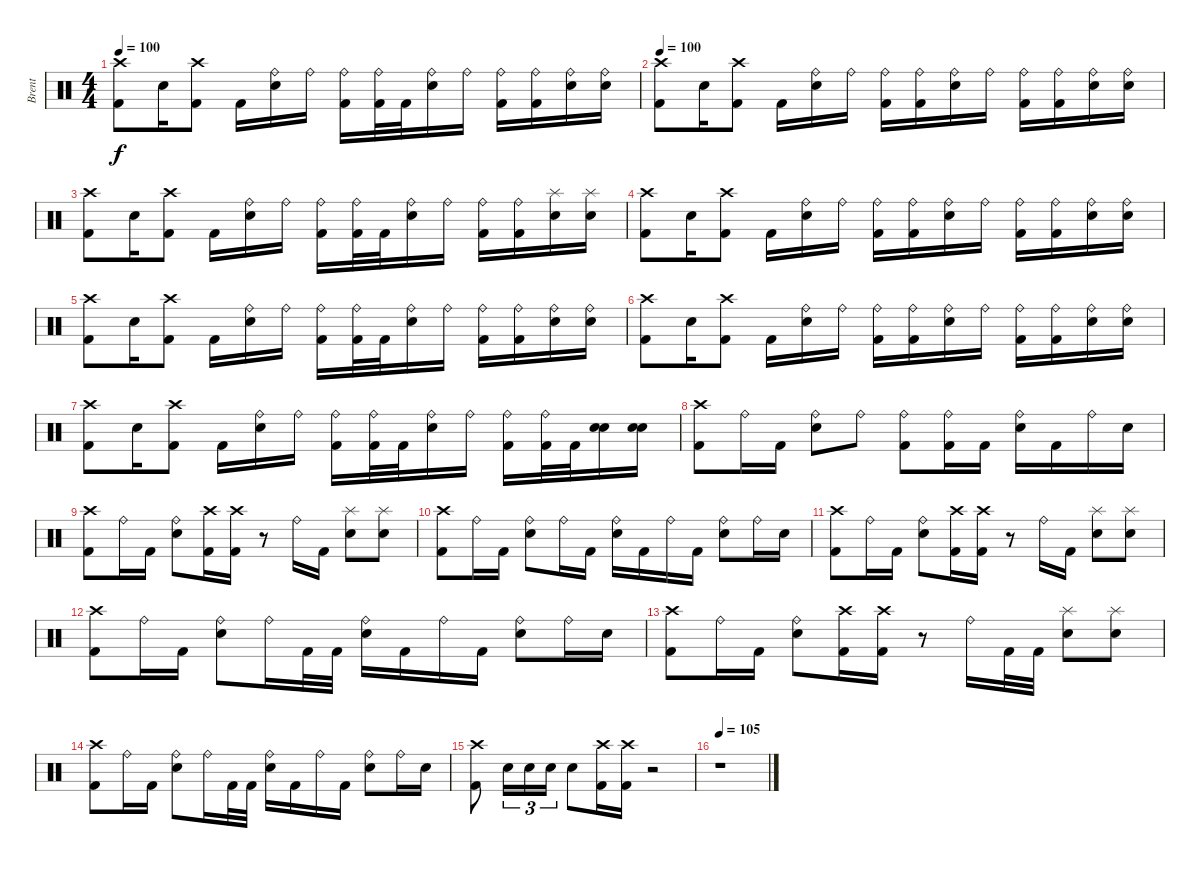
\track ("Brent" "Brent") {instrument percussion}
\staff {score}
\articulation defaults
\ts (4 4)
\tempo 100
\clef neutral
\ks c
("Crash high (hit)" "Kick (hit) 2").8{dy f} "Snare (hit) 2".16 ("Crash high (hit)" "Kick (hit) 2").8 "Kick (hit) 2".16 ("Ride (bell)" "Snare (hit) 2").16 "Ride (bell)".16 ("Ride (bell)" "Kick (hit) 2").16 ("Ride (bell)" "Kick (hit) 2").32 "Kick (hit) 2".32 ("Ride (bell)" "Snare (hit) 2").16 "Ride (bell)".16 ("Ride (bell)" "Kick (hit) 2").16 ("Ride (bell)" "Kick (hit) 2").16 ("Ride (bell)" "Snare (hit) 2").16 ("Ride (bell)" "Snare (hit) 2").16 |
\tempo 100
("Crash high (hit)" "Kick (hit) 2").8 "Snare (hit) 2".16 ("Crash high (hit)" "Kick (hit) 2").8 "Kick (hit) 2".16 ("Ride (bell)" "Snare (hit) 2").16 "Ride (bell)".16 ("Ride (bell)" "Kick (hit) 2").16 ("Ride (bell)" "Kick (hit) 2").16 ("Ride (bell)" "Snare (hit) 2").16 "Ride (bell)".16 ("Ride (bell)" "Kick (hit) 2").16 ("Ride (bell)" "Kick (hit) 2").16 ("Ride (bell)" "Snare (hit) 2").16 ("Ride (bell)" "Snare (hit) 2").16 |
("Crash high (hit)" "Kick (hit) 2").8 "Snare (hit) 2".16 ("Crash high (hit)" "Kick (hit) 2").8 "Kick (hit) 2".16 ("Ride (bell)" "Snare (hit) 2").16 "Ride (bell)".16 ("Ride (bell)" "Kick (hit) 2").16 ("Ride (bell)" "Kick (hit) 2").32 "Kick (hit) 2".32 ("Ride (bell)" "Snare (hit) 2").16 "Ride (bell)".16 ("Ride (bell)" "Kick (hit) 2").16 ("Ride (bell)" "Kick (hit) 2").16 ("Splash (hit)" "Snare (hit) 2").16 ("Splash (hit)" "Snare (hit) 2").16 |
("Crash high (hit)" "Kick (hit) 2").8 "Snare (hit) 2".16 ("Crash high (hit)" "Kick (hit) 2").8 "Kick (hit) 2".16 ("Ride (bell)" "Snare (hit) 2").16 "Ride (bell)".16 ("Ride (bell)" "Kick (hit) 2").16 ("Ride (bell)" "Kick (hit) 2").16 ("Ride (bell)" "Snare (hit) 2").16 "Ride (bell)".16 ("Ride (bell)" "Kick (hit) 2").16 ("Ride (bell)" "Kick (hit) 2").16 ("Ride (bell)" "Snare (hit) 2").16 ("Ride (bell)" "Snare (hit) 2").16 |
("Crash high (hit)" "Kick (hit) 2").8 "Snare (hit) 2".16 ("Crash high (hit)" "Kick (hit) 2").8 "Kick (hit) 2".16 ("Ride (bell)" "Snare (hit) 2").16 "Ride (bell)".16 ("Ride (bell)" "Kick (hit) 2").16 ("Ride (bell)" "Kick (hit) 2").32 "Kick (hit) 2".32 ("Ride (bell)" "Snare (hit) 2").16 "Ride (bell)".16 ("Ride (bell)" "Kick (hit) 2").16 ("Ride (bell)" "Kick (hit) 2").16 ("Ride (bell)" "Snare (hit) 2").16 ("Ride (bell)" "Snare (hit) 2").16 |
("Crash high (hit)" "Kick (hit) 2").8 "Snare (hit) 2".16 ("Crash high (hit)" "Kick (hit) 2").8 "Kick (hit) 2".16 ("Ride (bell)" "Snare (hit) 2").16 "Ride (bell)".16 ("Ride (bell)" "Kick (hit) 2").16 ("Ride (bell)" "Kick (hit) 2").16 ("Ride (bell)" "Snare (hit) 2").16 "Ride (bell)".16 ("Ride (bell)" "Kick (hit) 2").16 ("Ride (bell)" "Kick (hit) 2").16 ("Ride (bell)" "Snare (hit) 2").16 ("Ride (bell)" "Snare (hit) 2").16 |
("Crash high (hit)" "Kick (hit) 2").8 "Snare (hit) 2".16 ("Crash high (hit)" "Kick (hit) 2").8 "Kick (hit) 2".16 ("Ride (bell)" "Snare (hit) 2").16 "Ride (bell)".16 ("Ride (bell)" "Kick (hit) 2").16 ("Ride (bell)" "Kick (hit) 2").32 "Kick (hit) 2".32 ("Ride (bell)" "Snare (hit) 2").16 "Ride (bell)".16 ("Ride (bell)" "Kick (hit) 2").16 ("Ride (bell)" "Kick (hit) 2").32 "Kick (hit) 2".32 ("Snare (hit) 2" "Snare (hit) 2").16 ("Snare (hit) 2" "Snare (hit) 2").16 |
("Crash high (hit)" "Kick (hit) 2").8 "Ride (bell)".16 "Kick (hit) 2".16 ("Ride (bell)" "Snare (hit) 2").8 "Ride (bell)".8 ("Ride (bell)" "Kick (hit) 2").8 ("Ride (bell)" "Kick (hit) 2").16 "Kick (hit) 2".16 ("Ride (bell)" "Snare (hit) 2").16 "Kick (hit) 2".16 "Ride (bell)".16 "Snare (hit) 2".16 |
("Crash high (hit)" "Kick (hit) 2").8 "Ride (bell)".16 "Kick (hit) 2".16 ("Ride (bell)" "Snare (hit) 2").8 ("Crash high (hit)" "Kick (hit) 2").16 ("Crash high (hit)" "Kick (hit) 2").16 r.8 "Ride (bell)".16 "Kick (hit) 2".16 ("Splash (hit)" "Snare (hit) 2").8 ("Splash (hit)" "Snare (hit) 2").8 |
("Crash high (hit)" "Kick (hit) 2").8 "Ride (bell)".16 "Kick (hit) 2".16 ("Ride (bell)" "Snare (hit) 2").8 "Ride (bell)".16 "Kick (hit) 2".16 ("Ride (bell)" "Snare (hit) 2").16 "Kick (hit) 2".16 "Ride (bell)".16 "Kick (hit) 2".16 ("Ride (bell)" "Snare (hit) 2").8 "Ride (bell)".16 "Snare (hit) 2".16 |
("Crash high (hit)" "Kick (hit) 2").8 "Ride (bell)".16 "Kick (hit) 2".16 ("Ride (bell)" "Snare (hit) 2").8 ("Crash high (hit)" "Kick (hit) 2").16 ("Crash high (hit)" "Kick (hit) 2").16 r.8 "Ride (bell)".16 "Kick (hit) 2".16 ("Splash (hit)" "Snare (hit) 2").8 ("Splash (hit)" "Snare (hit) 2").8 |
("Crash high (hit)" "Kick (hit) 2").8 "Ride (bell)".16 "Kick (hit) 2".16 ("Ride (bell)" "Snare (hit) 2").8 "Ride (bell)".16 "Kick (hit) 2".32 "Kick (hit) 2".32 ("Ride (bell)" "Snare (hit) 2").16 "Kick (hit) 2".16 "Ride (bell)".16 "Kick (hit) 2".16 ("Ride (bell)" "Snare (hit) 2").8 "Ride (bell)".16 "Snare (hit) 2".16 |
("Crash high (hit)" "Kick (hit) 2").8 "Ride (bell)".16 "Kick (hit) 2".16 ("Ride (bell)" "Snare (hit) 2").8 ("Crash high (hit)" "Kick (hit) 2").16 ("Crash high (hit)" "Kick (hit) 2").16 r.8 "Ride (bell)".16 "Kick (hit) 2".32 "Kick (hit) 2".32 ("Splash (hit)" "Snare (hit) 2").8 ("Splash (hit)" "Snare (hit) 2").8 |
("Crash high (hit)" "Kick (hit) 2").8 "Ride (bell)".16 "Kick (hit) 2".16 ("Ride (bell)" "Snare (hit) 2").8 "Ride (bell)".16 "Kick (hit) 2".32 "Kick (hit) 2".32 ("Ride (bell)" "Snare (hit) 2").16 "Kick (hit) 2".16 "Ride (bell)".16 "Kick (hit) 2".16 ("Ride (bell)" "Snare (hit) 2").8 "Ride (bell)".16 "Snare (hit) 2".16 |
("Crash high (hit)" "Kick (hit) 2").8 "Snare (hit) 2".16{tu (3 2)} "Snare (hit) 2".16{tu (3 2)} "Snare (hit) 2".16{tu (3 2)} "Snare (hit) 2".8 ("Crash high (hit)" "Kick (hit) 2").16 ("Crash high (hit)" "Kick (hit) 2").16 r.2 |
\tempo 105
r.1
